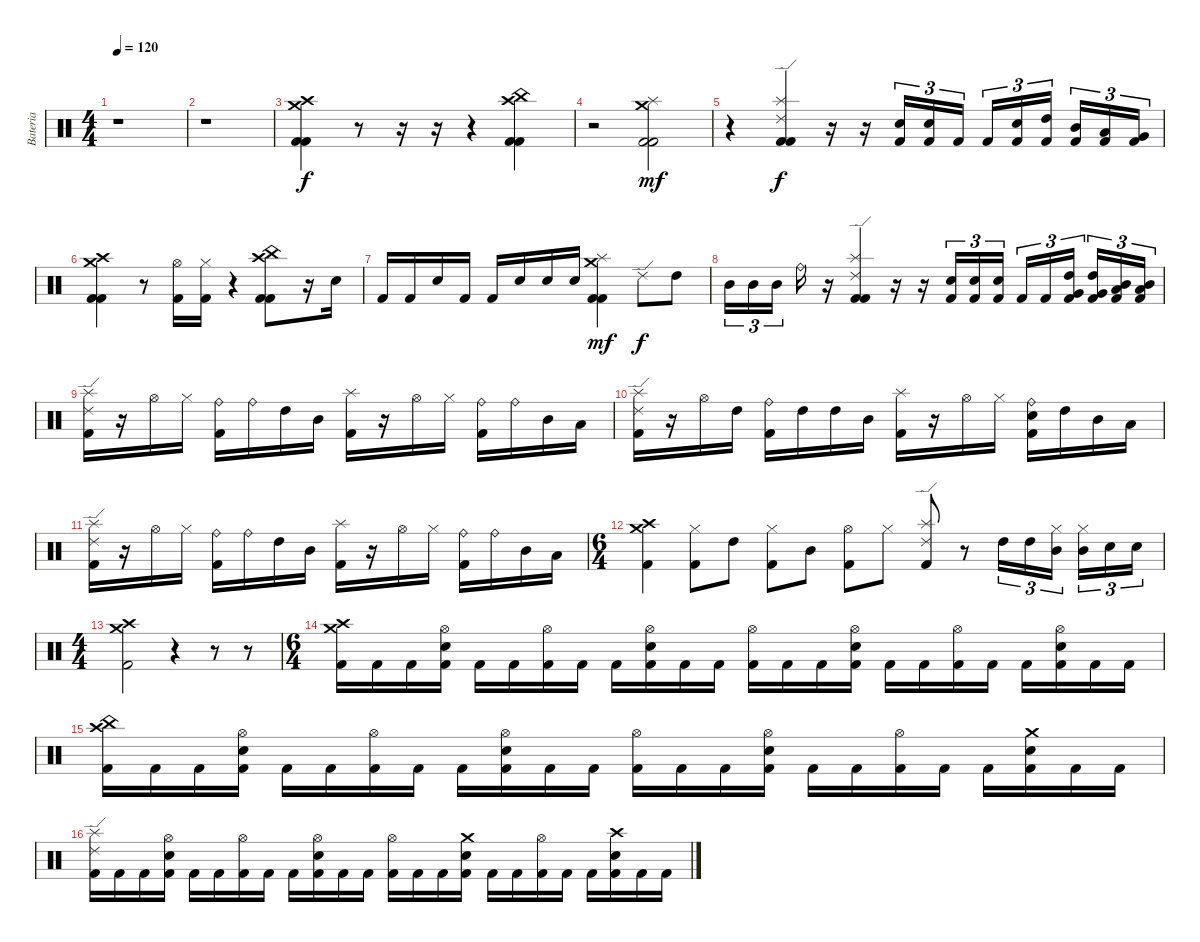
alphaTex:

\track ("Bateria" "Bateria") {instrument percussion}
\staff {score}
\articulation defaults
\ts (4 4)
\tempo 120
\clef neutral
\ks c
r.1{dy f} |
r.1 |
("Crash medium (hit)" "Crash high (hit)" "Kick (hit) 2" "Kick (hit) 2").4 r.8 r.16 r.16 r.4 ("Crash high (hit)" "China (hit)" "Kick (hit) 2" "Kick (hit) 2").4 |
r.2 ("Crash medium (hit)" "Splash (hit)" "Kick (hit) 2" "Kick (hit) 2").2{dy mf} |
r.4 ("Ride (edge) 2" "Splash (hit)" "Kick (hit) 2" "Kick (hit) 2").4{dy f} r.16 r.16 ("Electric Snare (hit)" "Kick (hit) 2").16{tu (3 2)} ("Electric Snare (hit)" "Kick (hit) 2").16{tu (3 2)} "Kick (hit) 2".16{tu (3 2)} "Kick (hit) 2".16{tu (3 2)} ("Electric Snare (hit)" "Kick (hit) 2").16{tu (3 2)} ("High Tom (hit)" "Kick (hit) 2").16{tu (3 2)} ("Mid Tom (hit)" "Kick (hit) 2").16{tu (3 2)} ("Low Tom (hit)" "Kick (hit) 2").16{tu (3 2)} ("Very Low Tom (hit)" "Kick (hit) 2").16{tu (3 2)} |
("Crash medium (hit)" "Crash high (hit)" "Kick (hit) 2" "Kick (hit) 2").4 r.8 ("Hi-Hat (open)" "Kick (hit) 2").16 ("Hi-Hat (closed)" "Kick (hit) 2").16 r.4 ("Crash high (hit)" "China (hit)" "Kick (hit) 2" "Kick (hit) 2").8 r.16 "Electric Snare (hit)".16 |
"Kick (hit) 2".16 "Kick (hit) 2".16 "Electric Snare (hit)".16 "Kick (hit) 2".16 "Kick (hit) 2".16 "Electric Snare (hit)".16 "Electric Snare (hit)".16 "Electric Snare (hit)".16 ("Crash medium (hit)" "Splash (hit)" "Kick (hit) 2" "Kick (hit) 2").4{dy mf} "Ride (edge) 2".8{dy f} "High Tom (hit)".8 |
"Mid Tom (hit)".16{tu (3 2)} "Mid Tom (hit)".16{tu (3 2)} "Mid Tom (hit)".16{tu (3 2)} "Ride (bell)".16 r.16 ("Ride (edge) 2" "Splash (hit)" "Kick (hit) 2" "Kick (hit) 2").4 r.16 r.16 ("Electric Snare (hit)" "Kick (hit) 2").16{tu (3 2)} ("Electric Snare (hit)" "Kick (hit) 2").16{tu (3 2)} ("Electric Snare (hit)" "Kick (hit) 2").16{tu (3 2)} "Kick (hit) 2".16{tu (3 2)} "Kick (hit) 2".16{tu (3 2)} ("High Tom (hit)" "Very Low Tom (hit)" "Kick (hit) 2").16{tu (3 2)} ("High Tom (hit)" "Very Low Tom (hit)" "Kick (hit) 2").16{tu (3 2)} ("Mid Tom (hit)" "Low Floor Tom (hit)" "Kick (hit) 2").16{tu (3 2)} ("Mid Tom (hit)" "Low Floor Tom (hit)" "Kick (hit) 2").16{tu (3 2)} |
("Ride (edge) 2" "Splash (hit)" "Kick (hit) 2").16 r.16 "Hi-Hat (open)".16 "Hi-Hat (closed)".16 ("Ride (bell)" "Kick (hit) 2").16 "Ride (bell)".16 "High Tom (hit)".16 "Mid Tom (hit)".16 ("Splash (hit)" "Kick (hit) 2").16 r.16 "Hi-Hat (open)".16 "Hi-Hat (closed)".16 ("Ride (bell)" "Kick (hit) 2").16 "Ride (bell)".16 "Mid Tom (hit)".16 "Low Tom (hit)".16 |
("Ride (edge) 2" "Splash (hit)" "Kick (hit) 2").16 r.16 "Hi-Hat (open)".16 "High Tom (hit)".16 ("Ride (bell)" "Kick (hit) 2").16 "High Tom (hit)".16 "High Tom (hit)".16 "Mid Tom (hit)".16 ("Splash (hit)" "Kick (hit) 2").16 r.16 "Hi-Hat (open)".16 "Hi-Hat (closed)".16 ("Ride (bell)" "Electric Snare (hit)" "Kick (hit) 2").16 "High Tom (hit)".16 "Mid Tom (hit)".16 "Low Tom (hit)".16 |
("Ride (edge) 2" "Splash (hit)" "Kick (hit) 2").16 r.16 "Hi-Hat (open)".16 "Hi-Hat (closed)".16 ("Ride (bell)" "Kick (hit) 2").16 "Ride (bell)".16 "High Tom (hit)".16 "Mid Tom (hit)".16 ("Splash (hit)" "Kick (hit) 2").16 r.16 "Hi-Hat (open)".16 "Hi-Hat (closed)".16 ("Ride (bell)" "Kick (hit) 2").16 "Ride (bell)".16 "Mid Tom (hit)".16 "Low Tom (hit)".16 |
\ts (6 4)
("Crash medium (hit)" "Crash high (hit)" "Kick (hit) 2").4 ("Hi-Hat (closed)" "Kick (hit) 2").8 "High Tom (hit)".8 ("Hi-Hat (closed)" "Kick (hit) 2").8 "Mid Tom (hit)".8 ("Hi-Hat (open)" "Kick (hit) 2").8 "Hi-Hat (closed)".8 ("Splash (hit)" "Ride (edge) 2" "Kick (hit) 2").8 r.8 "High Tom (hit)".16{tu (3 2)} "High Tom (hit)".16{tu (3 2)} ("Hi-Hat (closed)" "Mid Tom (hit)").16{tu (3 2)} ("Hi-Hat (closed)" "Mid Tom (hit)").16{tu (3 2)} "Electric Snare (hit)".16{tu (3 2)} "Electric Snare (hit)".16{tu (3 2)} |
\ts (4 4)
("Crash medium (hit)" "Crash high (hit)" "Kick (hit) 2").2 r.4 r.8 r.8 |
\ts (6 4)
("Crash medium (hit)" "Crash high (hit)" "Kick (hit) 2").16 "Kick (hit) 2".16 "Kick (hit) 2".16 ("Hi-Hat (open)" "Electric Snare (hit)" "Kick (hit) 2").16 "Kick (hit) 2".16 "Kick (hit) 2".16 ("Hi-Hat (open)" "Kick (hit) 2").16 "Kick (hit) 2".16 "Kick (hit) 2".16 ("Hi-Hat (open)" "Electric Snare (hit)" "Kick (hit) 2").16 "Kick (hit) 2".16 "Kick (hit) 2".16 ("Hi-Hat (open)" "Kick (hit) 2").16 "Kick (hit) 2".16 "Kick (hit) 2".16 ("Hi-Hat (open)" "Electric Snare (hit)" "Kick (hit) 2").16 "Kick (hit) 2".16 "Kick (hit) 2".16 ("Hi-Hat (open)" "Kick (hit) 2").16 "Kick (hit) 2".16 "Kick (hit) 2".16 ("Hi-Hat (open)" "Electric Snare (hit)" "Kick (hit) 2").16 "Kick (hit) 2".16 "Kick (hit) 2".16 |
("China (hit)" "Crash high (hit)" "Kick (hit) 2").16 "Kick (hit) 2".16 "Kick (hit) 2".16 ("Hi-Hat (open)" "Electric Snare (hit)" "Kick (hit) 2").16 "Kick (hit) 2".16 "Kick (hit) 2".16 ("Hi-Hat (open)" "Kick (hit) 2").16 "Kick (hit) 2".16 "Kick (hit) 2".16 ("Hi-Hat (open)" "Electric Snare (hit)" "Kick (hit) 2").16 "Kick (hit) 2".16 "Kick (hit) 2".16 ("Hi-Hat (open)" "Kick (hit) 2").16 "Kick (hit) 2".16 "Kick (hit) 2".16 ("Hi-Hat (open)" "Electric Snare (hit)" "Kick (hit) 2").16 "Kick (hit) 2".16 "Kick (hit) 2".16 ("Hi-Hat (open)" "Kick (hit) 2").16 "Kick (hit) 2".16 "Kick (hit) 2".16 ("Crash medium (hit)" "Electric Snare (hit)" "Kick (hit) 2").16 "Kick (hit) 2".16 "Kick (hit) 2".16 |
("Ride (edge) 2" "Splash (hit)" "Kick (hit) 2").16 "Kick (hit) 2".16 "Kick (hit) 2".16 ("Hi-Hat (open)" "Electric Snare (hit)" "Kick (hit) 2").16 "Kick (hit) 2".16 "Kick (hit) 2".16 ("Hi-Hat (open)" "Kick (hit) 2").16 "Kick (hit) 2".16 "Kick (hit) 2".16 ("Hi-Hat (open)" "Electric Snare (hit)" "Kick (hit) 2").16 "Kick (hit) 2".16 "Kick (hit) 2".16 ("Hi-Hat (open)" "Kick (hit) 2").16 "Kick (hit) 2".16 "Kick (hit) 2".16 ("Crash medium (hit)" "Electric Snare (hit)" "Kick (hit) 2").16 "Kick (hit) 2".16 "Kick (hit) 2".16 ("Hi-Hat (open)" "Kick (hit) 2").16 "Kick (hit) 2".16 "Kick (hit) 2".16 ("Crash high (hit)" "Electric Snare (hit)" "Kick (hit) 2").16 "Kick (hit) 2".16 "Kick (hit) 2".16
